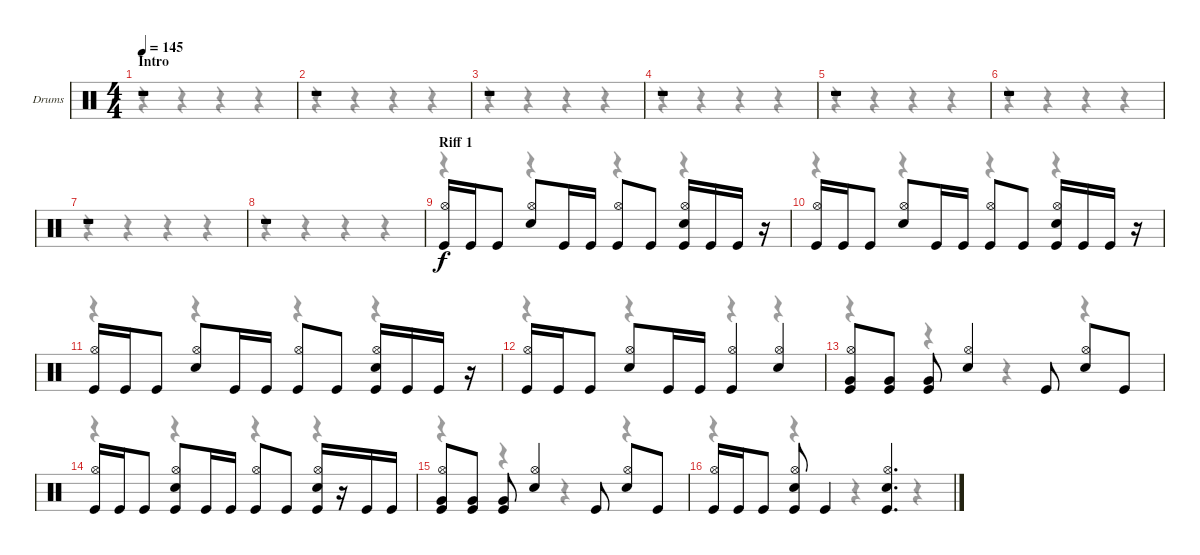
\bracketExtendMode groupsimilarinstruments
\firstSystemTrackNameOrientation horizontal
\otherSystemsTrackNameOrientation horizontal
\track ("Drumkit" "Drums") {solo instrument percussion}
\staff {score}
\articulation defaults
\voice
\ts (4 4)
\beaming (8 2 2 2 2)
\section ("" "Intro")
\tempo 145
\clef neutral
\ks c
r.1{dy f} |
r.1 |
r.1 |
r.1 |
r.1 |
r.1 |
r.1 |
r.1 |
\section ("" "Riff 1")
("Kick (hit)" "Hi-Hat (open)").16 "Kick (hit)".16 "Kick (hit)".8 ("Snare (hit) 2" "Hi-Hat (open)").8 "Kick (hit)".16 "Kick (hit)".16 ("Kick (hit)" "Hi-Hat (open)").8 "Kick (hit)".8 ("Kick (hit)" "Snare (hit) 2" "Hi-Hat (open)").16 "Kick (hit)".16 "Kick (hit)".16 r.16 |
("Kick (hit)" "Hi-Hat (open)").16 "Kick (hit)".16 "Kick (hit)".8 ("Snare (hit) 2" "Hi-Hat (open)").8 "Kick (hit)".16 "Kick (hit)".16 ("Kick (hit)" "Hi-Hat (open)").8 "Kick (hit)".8 ("Kick (hit)" "Snare (hit) 2" "Hi-Hat (open)").16 "Kick (hit)".16 "Kick (hit)".16 r.16 |
("Kick (hit)" "Hi-Hat (open)").16 "Kick (hit)".16 "Kick (hit)".8 ("Snare (hit) 2" "Hi-Hat (open)").8 "Kick (hit)".16 "Kick (hit)".16 ("Kick (hit)" "Hi-Hat (open)").8 "Kick (hit)".8 ("Kick (hit)" "Snare (hit) 2" "Hi-Hat (open)").16 "Kick (hit)".16 "Kick (hit)".16 r.16 |
("Kick (hit)" "Hi-Hat (open)").16 "Kick (hit)".16 "Kick (hit)".8 ("Snare (hit) 2" "Hi-Hat (open)").8 "Kick (hit)".16 "Kick (hit)".16 ("Kick (hit)" "Hi-Hat (open)").4 ("Snare (hit) 2" "Hi-Hat (open)").4 |
("Kick (hit)" "Very Low Tom (hit)" "Hi-Hat (open)").8 ("Kick (hit)" "Very Low Tom (hit)").8 ("Kick (hit)" "Very Low Tom (hit)").8 ("Snare (hit) 2" "Hi-Hat (open)").4 "Kick (hit)".8 ("Snare (hit) 2" "Hi-Hat (open)").8 "Kick (hit)".8 |
("Kick (hit)" "Hi-Hat (open)").16 "Kick (hit)".16 "Kick (hit)".8 ("Kick (hit)" "Snare (hit) 2" "Hi-Hat (open)").8 "Kick (hit)".16 "Kick (hit)".16 ("Kick (hit)" "Hi-Hat (open)").8 "Kick (hit)".8 ("Kick (hit)" "Snare (hit) 2" "Hi-Hat (open)").16 r.16 "Kick (hit)".16 "Kick (hit)".16 |
("Kick (hit)" "Very Low Tom (hit)" "Hi-Hat (open)").8 ("Kick (hit)" "Very Low Tom (hit)").8 ("Kick (hit)" "Very Low Tom (hit)").8 ("Snare (hit) 2" "Hi-Hat (open)").4 "Kick (hit)".8 ("Snare (hit) 2" "Hi-Hat (open)").8 "Kick (hit)".8 |
("Kick (hit)" "Hi-Hat (open)").16 "Kick (hit)".16 "Kick (hit)".8 ("Kick (hit)" "Snare (hit) 2" "Hi-Hat (open)").8 "Kick (hit)".4 ("Snare (hit) 2" "Kick (hit)" "Hi-Hat (open)").4{d}
\voice
\clef neutral
\ottava regular
\simile none
\ks c
r.4{dy mf} r.4 r.4 r.4 |
r.4 r.4 r.4 r.4 |
r.4 r.4 r.4 r.4 |
r.4 r.4 r.4 r.4 |
r.4 r.4 r.4 r.4 |
r.4 r.4 r.4 r.4 |
r.4 r.4 r.4 r.4 |
r.4 r.4 r.4 r.4 |
r.4 r.4 r.4 r.4 |
r.4 r.4 r.4 r.4 |
r.4 r.4 r.4 r.4 |
r.4 r.4 r.4 r.4 |
r.4 r.4 r.4 r.4 |
r.4 r.4 r.4 r.4 |
r.4 r.4 r.4 r.4 |
r.4 r.4 r.4 r.4
